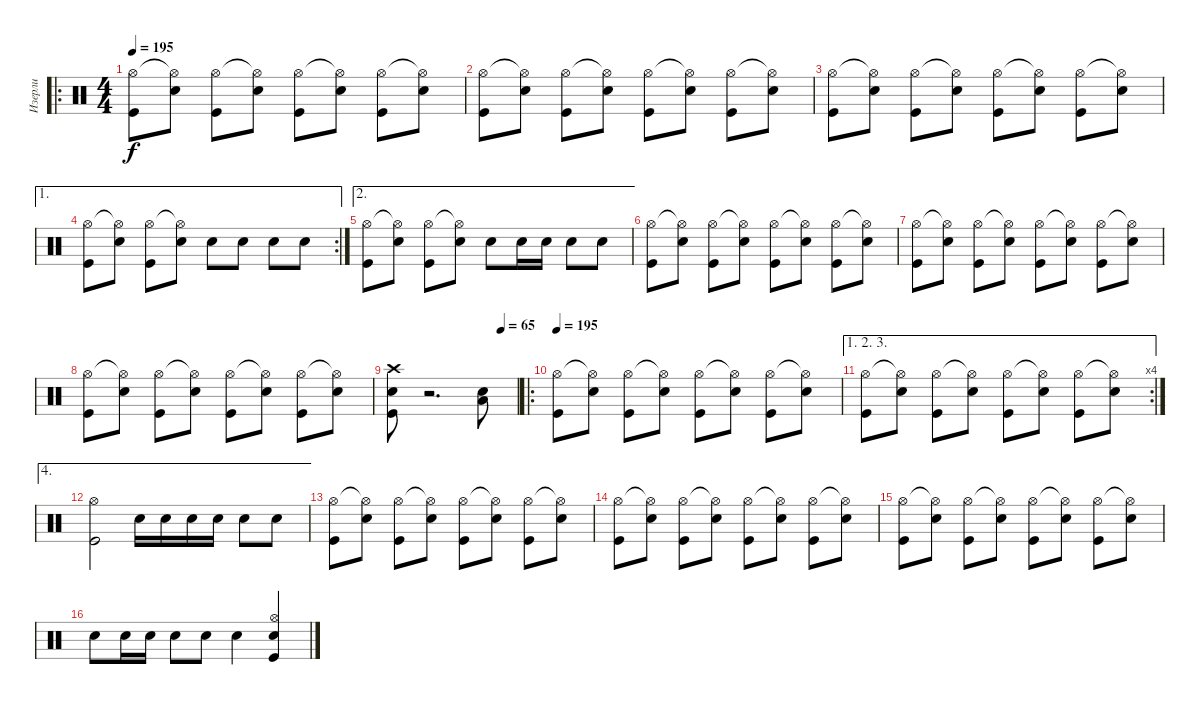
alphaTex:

\track ("Изерли" "Изерли") {instrument percussion}
\staff {score}
\articulation defaults
\ro
\ts (4 4)
\tempo 195
\clef neutral
\ks c
("Kick (hit)" "Hi-Hat (open)").8{dy f} ("Snare (hit) 2" "Hi-Hat (open)"{t}).8 ("Kick (hit)" "Hi-Hat (open)").8 ("Snare (hit) 2" "Hi-Hat (open)"{t}).8 ("Kick (hit)" "Hi-Hat (open)").8 ("Snare (hit) 2" "Hi-Hat (open)"{t}).8 ("Kick (hit)" "Hi-Hat (open)").8 ("Snare (hit) 2" "Hi-Hat (open)"{t}).8 |
("Kick (hit)" "Hi-Hat (open)").8 ("Snare (hit) 2" "Hi-Hat (open)"{t}).8 ("Kick (hit)" "Hi-Hat (open)").8 ("Snare (hit) 2" "Hi-Hat (open)"{t}).8 ("Kick (hit)" "Hi-Hat (open)").8 ("Snare (hit) 2" "Hi-Hat (open)"{t}).8 ("Kick (hit)" "Hi-Hat (open)").8 ("Snare (hit) 2" "Hi-Hat (open)"{t}).8 |
("Kick (hit)" "Hi-Hat (open)").8 ("Snare (hit) 2" "Hi-Hat (open)"{t}).8 ("Kick (hit)" "Hi-Hat (open)").8 ("Snare (hit) 2" "Hi-Hat (open)"{t}).8 ("Kick (hit)" "Hi-Hat (open)").8 ("Snare (hit) 2" "Hi-Hat (open)"{t}).8 ("Kick (hit)" "Hi-Hat (open)").8 ("Snare (hit) 2" "Hi-Hat (open)"{t}).8 |
\ae 1
\rc 2
("Kick (hit)" "Hi-Hat (open)").8 ("Snare (hit) 2" "Hi-Hat (open)"{t}).8 ("Kick (hit)" "Hi-Hat (open)").8 ("Snare (hit) 2" "Hi-Hat (open)"{t}).8 "Snare (hit) 2".8{balance 5} "Snare (hit) 2".8 "Snare (hit) 2".8 "Snare (hit) 2".8 |
\ae 2
("Kick (hit)" "Hi-Hat (open)").8 ("Snare (hit) 2" "Hi-Hat (open)"{t}).8 ("Kick (hit)" "Hi-Hat (open)").8 ("Snare (hit) 2" "Hi-Hat (open)"{t}).8 "Snare (hit) 2".8 "Snare (hit) 2".16 "Snare (hit) 2".16 "Snare (hit) 2".8 "Snare (hit) 2".8 |
("Kick (hit)" "Hi-Hat (open)").8 ("Snare (hit) 2" "Hi-Hat (open)"{t}).8 ("Kick (hit)" "Hi-Hat (open)").8 ("Snare (hit) 2" "Hi-Hat (open)"{t}).8 ("Kick (hit)" "Hi-Hat (open)").8 ("Snare (hit) 2" "Hi-Hat (open)"{t}).8 ("Kick (hit)" "Hi-Hat (open)").8 ("Snare (hit) 2" "Hi-Hat (open)"{t}).8 |
("Kick (hit)" "Hi-Hat (open)").8 ("Snare (hit) 2" "Hi-Hat (open)"{t}).8 ("Kick (hit)" "Hi-Hat (open)").8 ("Snare (hit) 2" "Hi-Hat (open)"{t}).8 ("Kick (hit)" "Hi-Hat (open)").8 ("Snare (hit) 2" "Hi-Hat (open)"{t}).8 ("Kick (hit)" "Hi-Hat (open)").8 ("Snare (hit) 2" "Hi-Hat (open)"{t}).8 |
("Kick (hit)" "Hi-Hat (open)").8 ("Snare (hit) 2" "Hi-Hat (open)"{t}).8 ("Kick (hit)" "Hi-Hat (open)").8 ("Snare (hit) 2" "Hi-Hat (open)"{t}).8 ("Kick (hit)" "Hi-Hat (open)").8 ("Snare (hit) 2" "Hi-Hat (open)"{t}).8 ("Kick (hit)" "Hi-Hat (open)").8 ("Snare (hit) 2" "Hi-Hat (open)"{t}).8 |
\tempo (65 0.875)
("Kick (hit)" "Snare (hit) 2" "Crash high (hit)").8 r.2{d} ("Snare (hit) 2" "Low Tom (hit)").8 |
\ro
\tempo 195
("Kick (hit)" "Hi-Hat (open)").8 ("Snare (hit) 2" "Hi-Hat (open)"{t}).8 ("Kick (hit)" "Hi-Hat (open)").8 ("Snare (hit) 2" "Hi-Hat (open)"{t}).8 ("Kick (hit)" "Hi-Hat (open)").8 ("Snare (hit) 2" "Hi-Hat (open)"{t}).8 ("Kick (hit)" "Hi-Hat (open)").8 ("Snare (hit) 2" "Hi-Hat (open)"{t}).8 |
\ae (1 2 3)
\rc 4
("Kick (hit)" "Hi-Hat (open)").8 ("Snare (hit) 2" "Hi-Hat (open)"{t}).8 ("Kick (hit)" "Hi-Hat (open)").8 ("Snare (hit) 2" "Hi-Hat (open)"{t}).8 ("Kick (hit)" "Hi-Hat (open)").8 ("Snare (hit) 2" "Hi-Hat (open)"{t}).8 ("Kick (hit)" "Hi-Hat (open)").8 ("Snare (hit) 2" "Hi-Hat (open)"{t}).8 |
\ae 4
("Kick (hit)" "Hi-Hat (open)").2 "Snare (hit) 2".16 "Snare (hit) 2".16 "Snare (hit) 2".16 "Snare (hit) 2".16 "Snare (hit) 2".8 "Snare (hit) 2".8 |
("Kick (hit)" "Hi-Hat (open)").8{balance 8} ("Snare (hit) 2" "Hi-Hat (open)"{t}).8 ("Kick (hit)" "Hi-Hat (open)").8 ("Snare (hit) 2" "Hi-Hat (open)"{t}).8 ("Kick (hit)" "Hi-Hat (open)").8 ("Snare (hit) 2" "Hi-Hat (open)"{t}).8 ("Kick (hit)" "Hi-Hat (open)").8 ("Snare (hit) 2" "Hi-Hat (open)"{t}).8 |
("Kick (hit)" "Hi-Hat (open)").8 ("Snare (hit) 2" "Hi-Hat (open)"{t}).8 ("Kick (hit)" "Hi-Hat (open)").8 ("Snare (hit) 2" "Hi-Hat (open)"{t}).8 ("Kick (hit)" "Hi-Hat (open)").8 ("Snare (hit) 2" "Hi-Hat (open)"{t}).8 ("Kick (hit)" "Hi-Hat (open)").8 ("Snare (hit) 2" "Hi-Hat (open)"{t}).8 |
("Kick (hit)" "Hi-Hat (open)").8{balance 8} ("Snare (hit) 2" "Hi-Hat (open)"{t}).8 ("Kick (hit)" "Hi-Hat (open)").8 ("Snare (hit) 2" "Hi-Hat (open)"{t}).8 ("Kick (hit)" "Hi-Hat (open)").8 ("Snare (hit) 2" "Hi-Hat (open)"{t}).8 ("Kick (hit)" "Hi-Hat (open)").8 ("Snare (hit) 2" "Hi-Hat (open)"{t}).8 |
"Snare (hit) 2".8 "Snare (hit) 2".16 "Snare (hit) 2".16 "Snare (hit) 2".8 "Snare (hit) 2".8 "Snare (hit) 2".4 ("Hi-Hat (open)" "Kick (hit)" "Snare (hit) 2").4{balance 6}
